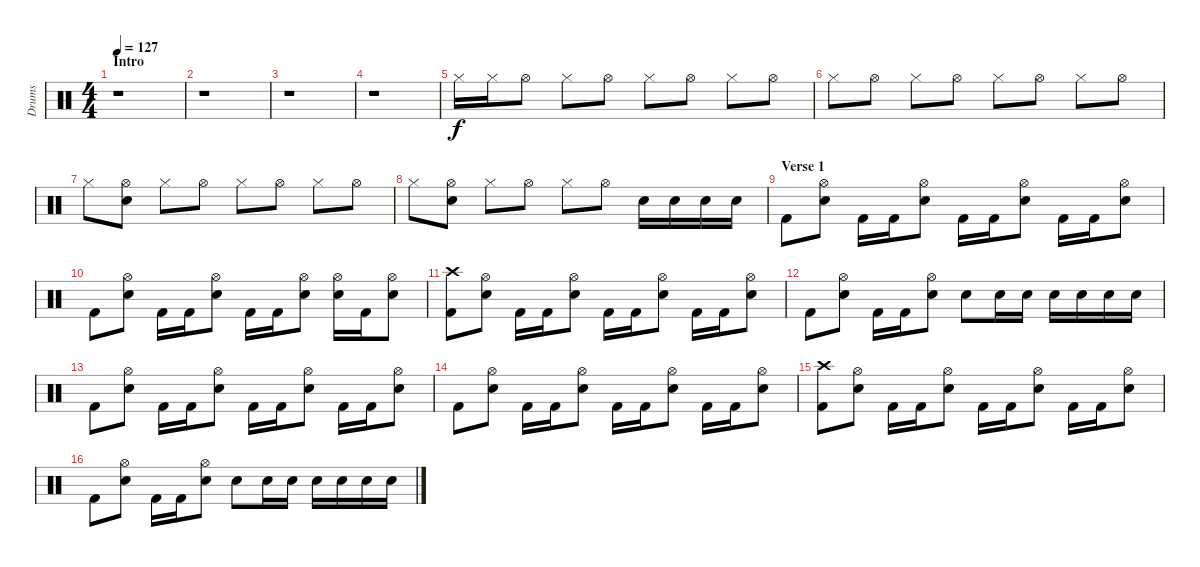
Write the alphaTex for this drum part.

\track ("Drums" "Drums") {instrument percussion}
\staff {score}
\articulation defaults
\ts (4 4)
\section ("" "Intro")
\tempo 127
\clef neutral
\ks c
r.1{dy f} |
r.1 |
r.1 |
r.1 |
"Hi-Hat (closed)".16 "Hi-Hat (closed)".16 "Hi-Hat (open)".8 "Hi-Hat (closed)".8 "Hi-Hat (open)".8 "Hi-Hat (closed)".8 "Hi-Hat (open)".8 "Hi-Hat (closed)".8 "Hi-Hat (open)".8 |
"Hi-Hat (closed)".8 "Hi-Hat (open)".8 "Hi-Hat (closed)".8 "Hi-Hat (open)".8 "Hi-Hat (closed)".8 "Hi-Hat (open)".8 "Hi-Hat (closed)".8 "Hi-Hat (open)".8 |
"Hi-Hat (closed)".8 ("Snare (hit) 2" "Hi-Hat (open)").8 "Hi-Hat (closed)".8 "Hi-Hat (open)".8 "Hi-Hat (closed)".8 "Hi-Hat (open)".8 "Hi-Hat (closed)".8 "Hi-Hat (open)".8 |
"Hi-Hat (closed)".8 ("Snare (hit) 2" "Hi-Hat (open)").8 "Hi-Hat (closed)".8 "Hi-Hat (open)".8 "Hi-Hat (closed)".8 "Hi-Hat (open)".8 "Snare (hit) 2".16 "Snare (hit) 2".16 "Snare (hit) 2".16 "Snare (hit) 2".16 |
\section ("" "Verse 1")
"Kick (hit) 2".8 ("Hi-Hat (open)" "Snare (hit) 2").8 "Kick (hit) 2".16 "Kick (hit) 2".16 ("Hi-Hat (open)" "Snare (hit) 2").8 "Kick (hit) 2".16 "Kick (hit) 2".16 ("Hi-Hat (open)" "Snare (hit) 2").8 "Kick (hit) 2".16 "Kick (hit) 2".16 ("Hi-Hat (open)" "Snare (hit) 2").8 |
"Kick (hit) 2".8 ("Hi-Hat (open)" "Snare (hit) 2").8 "Kick (hit) 2".16 "Kick (hit) 2".16 ("Hi-Hat (open)" "Snare (hit) 2").8 "Kick (hit) 2".16 "Kick (hit) 2".16 ("Hi-Hat (open)" "Snare (hit) 2").8 ("Hi-Hat (open)" "Snare (hit) 2").16 "Kick (hit) 2".16 ("Hi-Hat (open)" "Snare (hit) 2").8 |
("Crash high (hit)" "Kick (hit) 2").8 ("Hi-Hat (open)" "Snare (hit) 2").8 "Kick (hit) 2".16 "Kick (hit) 2".16 ("Hi-Hat (open)" "Snare (hit) 2").8 "Kick (hit) 2".16 "Kick (hit) 2".16 ("Hi-Hat (open)" "Snare (hit) 2").8 "Kick (hit) 2".16 "Kick (hit) 2".16 ("Hi-Hat (open)" "Snare (hit) 2").8 |
"Kick (hit) 2".8 ("Hi-Hat (open)" "Snare (hit) 2").8 "Kick (hit) 2".16 "Kick (hit) 2".16 ("Hi-Hat (open)" "Snare (hit) 2").8 "Snare (hit) 2".8 "Snare (hit) 2".16 "Snare (hit) 2".16 "Snare (hit) 2".16 "Snare (hit) 2".16 "Snare (hit) 2".16 "Snare (hit) 2".16 |
"Kick (hit) 2".8 ("Hi-Hat (open)" "Snare (hit) 2").8 "Kick (hit) 2".16 "Kick (hit) 2".16 ("Hi-Hat (open)" "Snare (hit) 2").8 "Kick (hit) 2".16 "Kick (hit) 2".16 ("Hi-Hat (open)" "Snare (hit) 2").8 "Kick (hit) 2".16 "Kick (hit) 2".16 ("Hi-Hat (open)" "Snare (hit) 2").8 |
"Kick (hit) 2".8 ("Hi-Hat (open)" "Snare (hit) 2").8 "Kick (hit) 2".16 "Kick (hit) 2".16 ("Hi-Hat (open)" "Snare (hit) 2").8 "Kick (hit) 2".16 "Kick (hit) 2".16 ("Hi-Hat (open)" "Snare (hit) 2").8 "Kick (hit) 2".16 "Kick (hit) 2".16 ("Hi-Hat (open)" "Snare (hit) 2").8 |
("Crash high (hit)" "Kick (hit) 2").8 ("Hi-Hat (open)" "Snare (hit) 2").8 "Kick (hit) 2".16 "Kick (hit) 2".16 ("Hi-Hat (open)" "Snare (hit) 2").8 "Kick (hit) 2".16 "Kick (hit) 2".16 ("Hi-Hat (open)" "Snare (hit) 2").8 "Kick (hit) 2".16 "Kick (hit) 2".16 ("Hi-Hat (open)" "Snare (hit) 2").8 |
"Kick (hit) 2".8 ("Hi-Hat (open)" "Snare (hit) 2").8 "Kick (hit) 2".16 "Kick (hit) 2".16 ("Hi-Hat (open)" "Snare (hit) 2").8 "Snare (hit) 2".8 "Snare (hit) 2".16 "Snare (hit) 2".16 "Snare (hit) 2".16 "Snare (hit) 2".16 "Snare (hit) 2".16 "Snare (hit) 2".16
